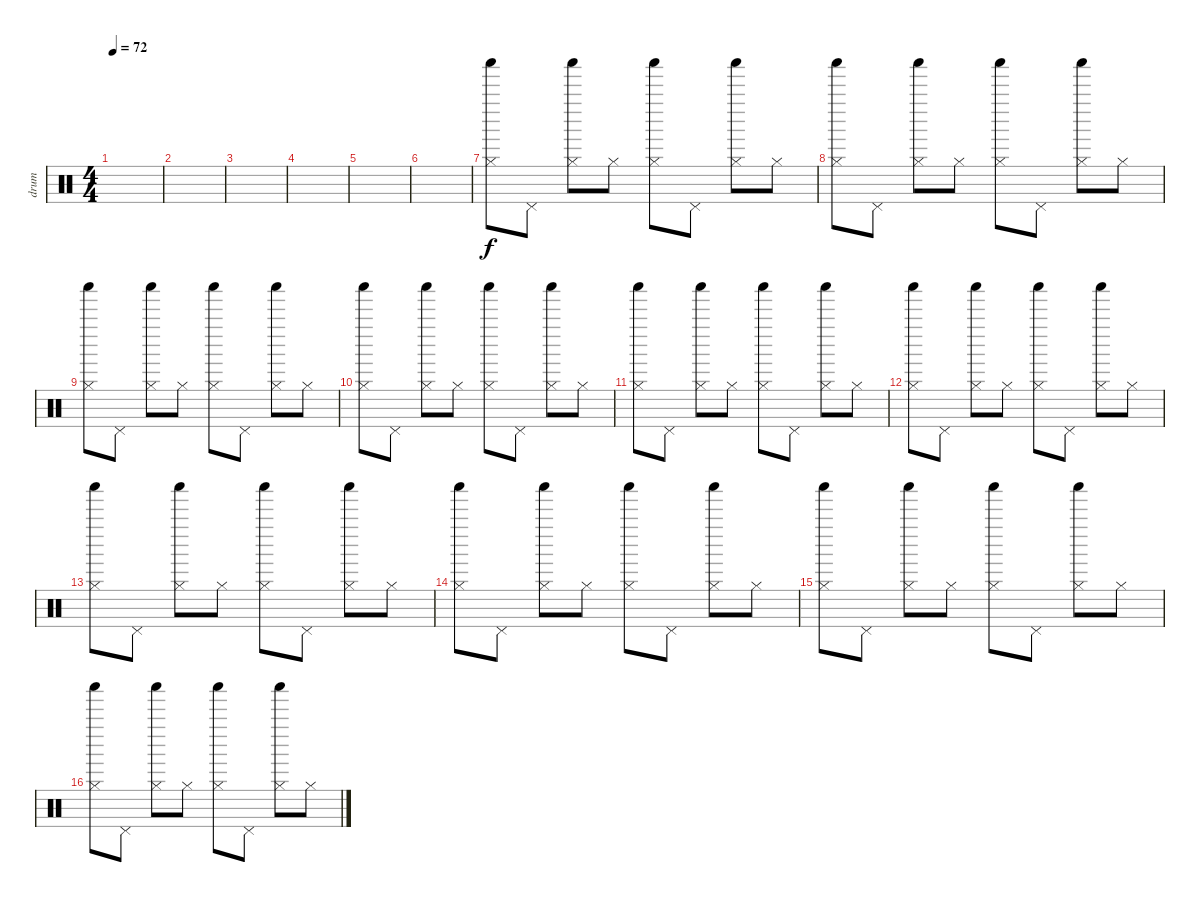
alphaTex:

\track ("drum" "drum") {instrument percussion}
\staff {score}
\articulation defaults
\ts (4 4)
\tempo 72
\clef neutral
\ks c
|
|
|
|
|
|
("Hi-Hat (closed)" "Shaker (hit)").8 "Pedal Hi-Hat (hit)".8 ("Hi-Hat (closed)" "Shaker (hit)").8 "Hi-Hat (closed)".8 ("Hi-Hat (closed)" "Shaker (hit)").8 "Pedal Hi-Hat (hit)".8 ("Hi-Hat (closed)" "Shaker (hit)").8 "Hi-Hat (closed)".8 |
("Hi-Hat (closed)" "Shaker (hit)").8 "Pedal Hi-Hat (hit)".8 ("Hi-Hat (closed)" "Shaker (hit)").8 "Hi-Hat (closed)".8 ("Hi-Hat (closed)" "Shaker (hit)").8 "Pedal Hi-Hat (hit)".8 ("Hi-Hat (closed)" "Shaker (hit)").8 "Hi-Hat (closed)".8 |
("Hi-Hat (closed)" "Shaker (hit)").8 "Pedal Hi-Hat (hit)".8 ("Hi-Hat (closed)" "Shaker (hit)").8 "Hi-Hat (closed)".8 ("Hi-Hat (closed)" "Shaker (hit)").8 "Pedal Hi-Hat (hit)".8 ("Hi-Hat (closed)" "Shaker (hit)").8 "Hi-Hat (closed)".8 |
("Hi-Hat (closed)" "Shaker (hit)").8 "Pedal Hi-Hat (hit)".8 ("Hi-Hat (closed)" "Shaker (hit)").8 "Hi-Hat (closed)".8 ("Hi-Hat (closed)" "Shaker (hit)").8 "Pedal Hi-Hat (hit)".8 ("Hi-Hat (closed)" "Shaker (hit)").8 "Hi-Hat (closed)".8 |
("Hi-Hat (closed)" "Shaker (hit)").8 "Pedal Hi-Hat (hit)".8 ("Hi-Hat (closed)" "Shaker (hit)").8 "Hi-Hat (closed)".8 ("Hi-Hat (closed)" "Shaker (hit)").8 "Pedal Hi-Hat (hit)".8 ("Hi-Hat (closed)" "Shaker (hit)").8 "Hi-Hat (closed)".8 |
("Hi-Hat (closed)" "Shaker (hit)").8 "Pedal Hi-Hat (hit)".8 ("Hi-Hat (closed)" "Shaker (hit)").8 "Hi-Hat (closed)".8 ("Hi-Hat (closed)" "Shaker (hit)").8 "Pedal Hi-Hat (hit)".8 ("Hi-Hat (closed)" "Shaker (hit)").8 "Hi-Hat (closed)".8 |
("Hi-Hat (closed)" "Shaker (hit)").8 "Pedal Hi-Hat (hit)".8 ("Hi-Hat (closed)" "Shaker (hit)").8 "Hi-Hat (closed)".8 ("Hi-Hat (closed)" "Shaker (hit)").8 "Pedal Hi-Hat (hit)".8 ("Hi-Hat (closed)" "Shaker (hit)").8 "Hi-Hat (closed)".8 |
("Hi-Hat (closed)" "Shaker (hit)").8 "Pedal Hi-Hat (hit)".8 ("Hi-Hat (closed)" "Shaker (hit)").8 "Hi-Hat (closed)".8 ("Hi-Hat (closed)" "Shaker (hit)").8 "Pedal Hi-Hat (hit)".8 ("Hi-Hat (closed)" "Shaker (hit)").8 "Hi-Hat (closed)".8 |
("Hi-Hat (closed)" "Shaker (hit)").8 "Pedal Hi-Hat (hit)".8 ("Hi-Hat (closed)" "Shaker (hit)").8 "Hi-Hat (closed)".8 ("Hi-Hat (closed)" "Shaker (hit)").8 "Pedal Hi-Hat (hit)".8 ("Hi-Hat (closed)" "Shaker (hit)").8 "Hi-Hat (closed)".8 |
("Hi-Hat (closed)" "Shaker (hit)").8 "Pedal Hi-Hat (hit)".8 ("Hi-Hat (closed)" "Shaker (hit)").8 "Hi-Hat (closed)".8 ("Hi-Hat (closed)" "Shaker (hit)").8 "Pedal Hi-Hat (hit)".8 ("Hi-Hat (closed)" "Shaker (hit)").8 "Hi-Hat (closed)".8
